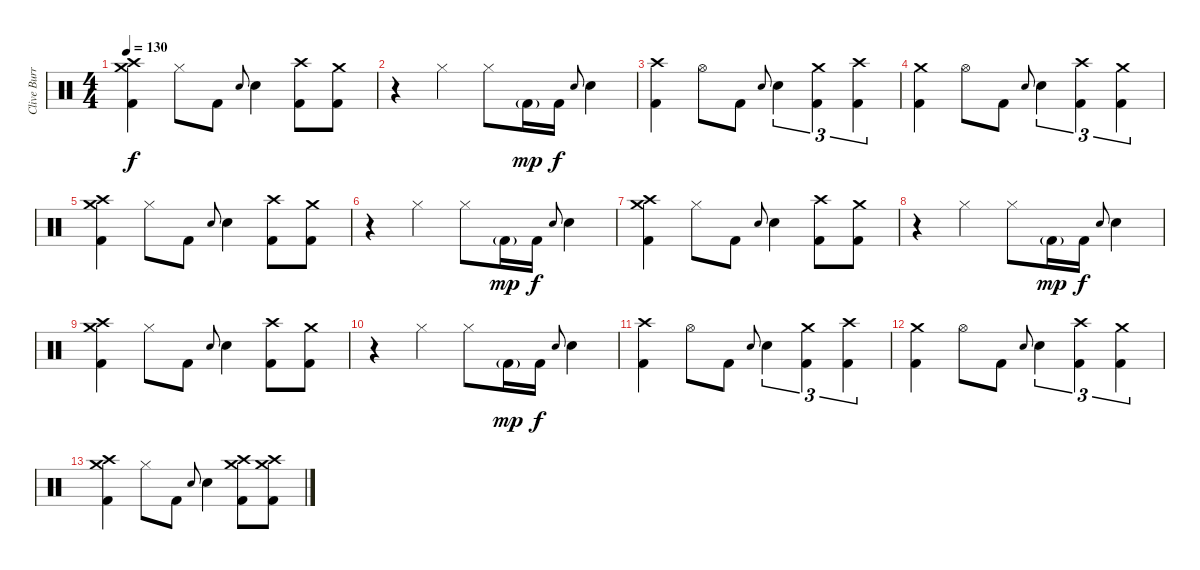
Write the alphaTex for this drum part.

\track ("Clive Burr" "Clive Burr") {instrument percussion}
\staff {score}
\articulation defaults
\ts (4 4)
\tempo 130
\clef neutral
\ks aminor
("Crash high (hit)" "Crash medium (hit)" "Kick (hit) 2").4{dy f} "Hi-Hat (closed)".8 "Kick (hit) 2".8 "Snare (hit) 2".8{gr onbeat} "Snare (hit) 2".4 ("Crash high (hit)" "Kick (hit) 2").8 ("Crash medium (hit)" "Kick (hit) 2").8 |
r.4 "Hi-Hat (closed)".4 "Hi-Hat (closed)".8 "Kick (hit) 2"{g}.16{dy mp} "Kick (hit) 2".16{dy f} "Snare (hit) 2".8{gr onbeat} "Snare (hit) 2".4 |
("Crash high (hit)" "Kick (hit) 2").4 "Hi-Hat (open)".8 "Kick (hit) 2".8 "Snare (hit) 2".8{gr onbeat} "Snare (hit) 2".4{tu (3 2)} ("Crash medium (hit)" "Kick (hit) 2").4{tu (3 2)} ("Crash high (hit)" "Kick (hit) 2").4{tu (3 2)} |
("Crash medium (hit)" "Kick (hit) 2").4 "Hi-Hat (open)".8 "Kick (hit) 2".8 "Snare (hit) 2".8{gr onbeat} "Snare (hit) 2".4{tu (3 2)} ("Crash high (hit)" "Kick (hit) 2").4{tu (3 2)} ("Crash medium (hit)" "Kick (hit) 2").4{tu (3 2)} |
("Crash high (hit)" "Crash medium (hit)" "Kick (hit) 2").4 "Hi-Hat (closed)".8 "Kick (hit) 2".8 "Snare (hit) 2".8{gr onbeat} "Snare (hit) 2".4 ("Crash high (hit)" "Kick (hit) 2").8 ("Crash medium (hit)" "Kick (hit) 2").8 |
r.4 "Hi-Hat (closed)".4 "Hi-Hat (closed)".8 "Kick (hit) 2"{g}.16{dy mp} "Kick (hit) 2".16{dy f} "Snare (hit) 2".8{gr onbeat} "Snare (hit) 2".4 |
\ks c
("Crash high (hit)" "Crash medium (hit)" "Kick (hit) 2").4 "Hi-Hat (closed)".8 "Kick (hit) 2".8 "Snare (hit) 2".8{gr onbeat} "Snare (hit) 2".4 ("Crash high (hit)" "Kick (hit) 2").8 ("Crash medium (hit)" "Kick (hit) 2").8 |
r.4 "Hi-Hat (closed)".4 "Hi-Hat (closed)".8 "Kick (hit) 2"{g}.16{dy mp} "Kick (hit) 2".16{dy f} "Snare (hit) 2".8{gr onbeat} "Snare (hit) 2".4 |
("Crash high (hit)" "Crash medium (hit)" "Kick (hit) 2").4 "Hi-Hat (closed)".8 "Kick (hit) 2".8 "Snare (hit) 2".8{gr onbeat} "Snare (hit) 2".4 ("Crash high (hit)" "Kick (hit) 2").8 ("Crash medium (hit)" "Kick (hit) 2").8 |
r.4 "Hi-Hat (closed)".4 "Hi-Hat (closed)".8 "Kick (hit) 2"{g}.16{dy mp} "Kick (hit) 2".16{dy f} "Snare (hit) 2".8{gr onbeat} "Snare (hit) 2".4 |
("Crash high (hit)" "Kick (hit) 2").4 "Hi-Hat (open)".8 "Kick (hit) 2".8 "Snare (hit) 2".8{gr onbeat} "Snare (hit) 2".4{tu (3 2)} ("Crash medium (hit)" "Kick (hit) 2").4{tu (3 2)} ("Crash high (hit)" "Kick (hit) 2").4{tu (3 2)} |
("Crash medium (hit)" "Kick (hit) 2").4 "Hi-Hat (open)".8 "Kick (hit) 2".8 "Snare (hit) 2".8{gr onbeat} "Snare (hit) 2".4{tu (3 2)} ("Crash high (hit)" "Kick (hit) 2").4{tu (3 2)} ("Crash medium (hit)" "Kick (hit) 2").4{tu (3 2)} |
("Crash high (hit)" "Crash medium (hit)" "Kick (hit) 2").4 "Hi-Hat (closed)".8 "Kick (hit) 2".8 "Snare (hit) 2".8{gr onbeat} "Snare (hit) 2".4 ("Crash high (hit)" "Crash medium (hit)" "Kick (hit) 2").8 ("Crash medium (hit)" "Crash high (hit)" "Kick (hit) 2").8
